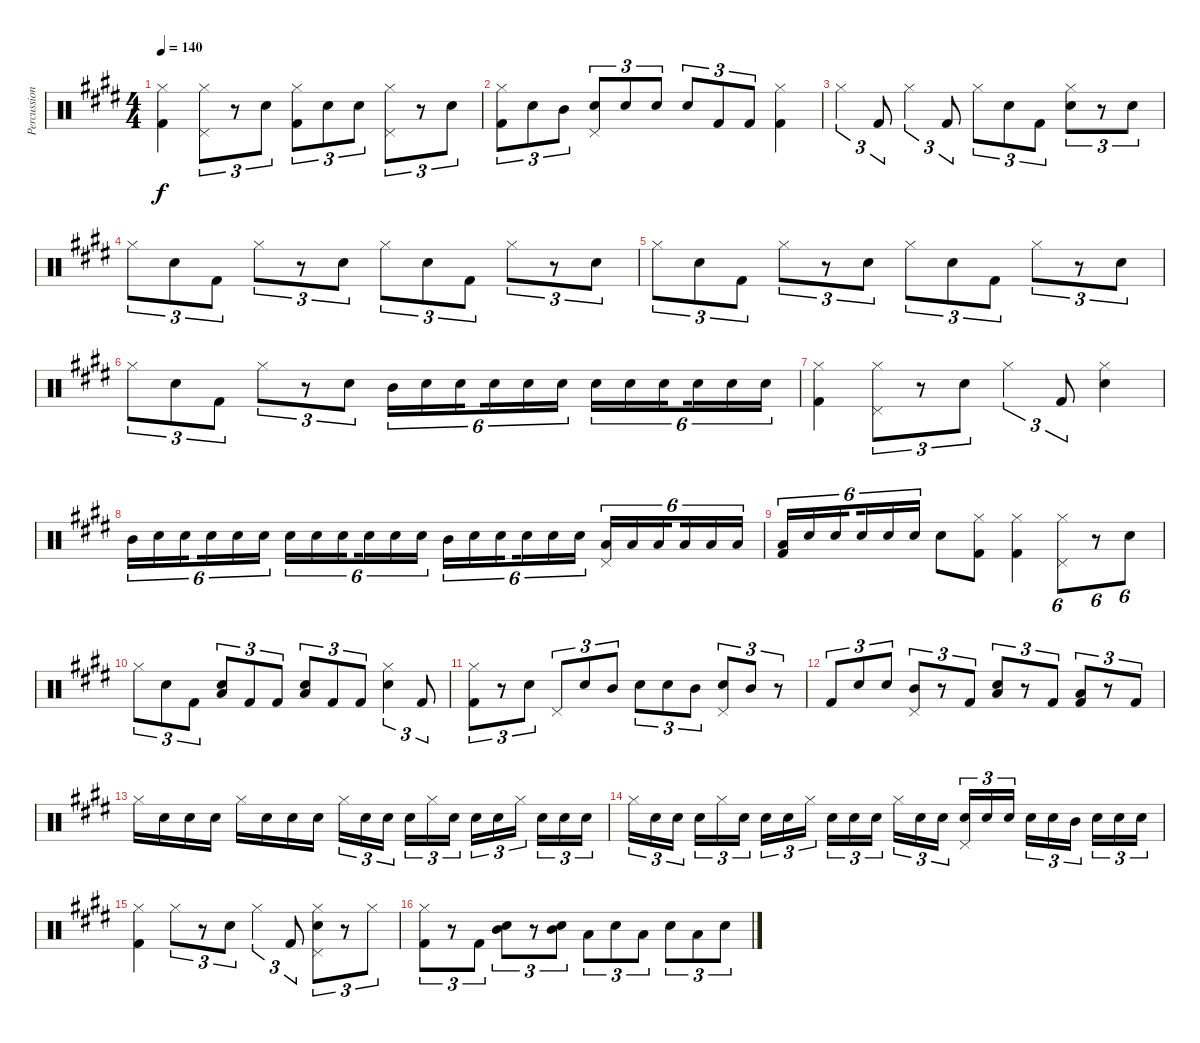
\track ("Percussion" "Percussion") {instrument percussion}
\staff {score}
\articulation defaults
\ts (4 4)
\tempo 140
\clef neutral
\ks e
("Hi-Hat (closed)" "Kick (hit) 2").4{dy f} ("Hi-Hat (closed)" "Pedal Hi-Hat (hit)").8{tu (3 2)} r.8{tu (3 2)} "Snare (hit) 2".8{tu (3 2)} ("Hi-Hat (closed)" "Kick (hit) 2").8{tu (3 2)} "Snare (hit) 2".8{tu (3 2)} "Snare (hit) 2".8{tu (3 2)} ("Hi-Hat (closed)" "Pedal Hi-Hat (hit)").8{tu (3 2)} r.8{tu (3 2)} "Snare (hit) 2".8{tu (3 2)} |
("Hi-Hat (closed)" "Kick (hit) 2").8{tu (3 2)} "Snare (hit) 2".8{tu (3 2)} "Mid Tom (hit)".8{tu (3 2)} ("Snare (hit) 2" "Pedal Hi-Hat (hit)").8{tu (3 2)} "Snare (hit) 2".8{tu (3 2)} "Snare (hit) 2".8{tu (3 2)} "Snare (hit) 2".8{tu (3 2)} "Kick (hit) 2".8{tu (3 2)} "Kick (hit) 2".8{tu (3 2)} ("Hi-Hat (closed)" "Kick (hit) 2").4 |
"Hi-Hat (closed)".4{tu (3 2)} "Kick (hit) 2".8{tu (3 2)} "Hi-Hat (closed)".4{tu (3 2)} "Kick (hit) 2".8{tu (3 2)} "Hi-Hat (closed)".8{tu (3 2)} "Snare (hit) 2".8{tu (3 2)} "Kick (hit) 2".8{tu (3 2)} ("Hi-Hat (closed)" "Snare (hit) 2").8{tu (3 2)} r.8{tu (3 2)} "Snare (hit) 2".8{tu (3 2)} |
"Hi-Hat (closed)".8{tu (3 2)} "Snare (hit) 2".8{tu (3 2)} "Kick (hit) 2".8{tu (3 2)} "Hi-Hat (closed)".8{tu (3 2)} r.8{tu (3 2)} "Snare (hit) 2".8{tu (3 2)} "Hi-Hat (closed)".8{tu (3 2)} "Snare (hit) 2".8{tu (3 2)} "Kick (hit) 2".8{tu (3 2)} "Hi-Hat (closed)".8{tu (3 2)} r.8{tu (3 2)} "Snare (hit) 2".8{tu (3 2)} |
"Hi-Hat (closed)".8{tu (3 2)} "Snare (hit) 2".8{tu (3 2)} "Kick (hit) 2".8{tu (3 2)} "Hi-Hat (closed)".8{tu (3 2)} r.8{tu (3 2)} "Snare (hit) 2".8{tu (3 2)} "Hi-Hat (closed)".8{tu (3 2)} "Snare (hit) 2".8{tu (3 2)} "Kick (hit) 2".8{tu (3 2)} "Hi-Hat (closed)".8{tu (3 2)} r.8{tu (3 2)} "Snare (hit) 2".8{tu (3 2)} |
"Hi-Hat (closed)".8{tu (3 2)} "Snare (hit) 2".8{tu (3 2)} "Kick (hit) 2".8{tu (3 2)} "Hi-Hat (closed)".8{tu (3 2)} r.8{tu (3 2)} "Snare (hit) 2".8{tu (3 2)} "Mid Tom (hit)".16{tu (6 4)} "Snare (hit) 2".16{tu (6 4)} "Snare (hit) 2".16{tu (6 4) beam splitsecondary} "Snare (hit) 2".16{tu (6 4)} "Snare (hit) 2".16{tu (6 4)} "Snare (hit) 2".16{tu (6 4)} "Snare (hit) 2".16{tu (6 4)} "Snare (hit) 2".16{tu (6 4)} "Snare (hit) 2".16{tu (6 4) beam splitsecondary} "Snare (hit) 2".16{tu (6 4)} "Snare (hit) 2".16{tu (6 4)} "Snare (hit) 2".16{tu (6 4)} |
("Hi-Hat (closed)" "Kick (hit) 2").4 ("Hi-Hat (closed)" "Pedal Hi-Hat (hit)").8{tu (3 2)} r.8{tu (3 2)} "Snare (hit) 2".8{tu (3 2)} "Hi-Hat (closed)".4{tu (3 2)} "Kick (hit) 2".8{tu (3 2)} ("Hi-Hat (closed)" "Snare (hit) 2").4 |
"Mid Tom (hit)".16{tu (6 4)} "Snare (hit) 2".16{tu (6 4)} "Snare (hit) 2".16{tu (6 4) beam splitsecondary} "Snare (hit) 2".16{tu (6 4)} "Snare (hit) 2".16{tu (6 4)} "Snare (hit) 2".16{tu (6 4)} "Snare (hit) 2".16{tu (6 4)} "Snare (hit) 2".16{tu (6 4)} "Snare (hit) 2".16{tu (6 4) beam splitsecondary} "Snare (hit) 2".16{tu (6 4)} "Snare (hit) 2".16{tu (6 4)} "Snare (hit) 2".16{tu (6 4)} "Mid Tom (hit)".16{tu (6 4)} "Snare (hit) 2".16{tu (6 4)} "Snare (hit) 2".16{tu (6 4) beam splitsecondary} "Snare (hit) 2".16{tu (6 4)} "Snare (hit) 2".16{tu (6 4)} "Snare (hit) 2".16{tu (6 4)} ("Low Floor Tom (hit)" "Pedal Hi-Hat (hit)").16{tu (6 4)} "Low Floor Tom (hit)".16{tu (6 4)} "Low Floor Tom (hit)".16{tu (6 4) beam splitsecondary} "Low Floor Tom (hit)".16{tu (6 4)} "Low Floor Tom (hit)".16{tu (6 4)} "Low Floor Tom (hit)".16{tu (6 4)} |
("Low Floor Tom (hit)" "Kick (hit) 2").16{tu (6 4)} "Snare (hit) 2".16{tu (6 4)} "Snare (hit) 2".16{tu (6 4) beam splitsecondary} "Snare (hit) 2".16{tu (6 4)} "Snare (hit) 2".16{tu (6 4)} "Snare (hit) 2".16{tu (6 4)} "Snare (hit) 2".8 ("Hi-Hat (closed)" "Kick (hit) 2").8 ("Hi-Hat (closed)" "Kick (hit) 2").4 ("Hi-Hat (closed)" "Pedal Hi-Hat (hit)").8{tu (6 4)} r.8{tu (6 4)} "Snare (hit) 2".8{tu (6 4)} |
"Hi-Hat (closed)".8{tu (3 2)} "Snare (hit) 2".8{tu (3 2)} "Kick (hit) 2".8{tu (3 2)} ("Snare (hit) 2" "Low Floor Tom (hit)").8{tu (3 2)} "Kick (hit) 2".8{tu (3 2)} "Kick (hit) 2".8{tu (3 2)} ("Snare (hit) 2" "Low Floor Tom (hit)").8{tu (3 2)} "Kick (hit) 2".8{tu (3 2)} "Kick (hit) 2".8{tu (3 2)} ("Hi-Hat (closed)" "Snare (hit) 2").4{tu (3 2)} "Kick (hit) 2".8{tu (3 2)} |
("Hi-Hat (closed)" "Kick (hit) 2").8{tu (3 2)} r.8{tu (3 2)} "Snare (hit) 2".8{tu (3 2)} "Pedal Hi-Hat (hit)".8{tu (3 2)} "Snare (hit) 2".8{tu (3 2)} "Mid Tom (hit)".8{tu (3 2)} "Snare (hit) 2".8{tu (3 2)} "Snare (hit) 2".8{tu (3 2)} "Mid Tom (hit)".8{tu (3 2)} ("Snare (hit) 2" "Pedal Hi-Hat (hit)").8{tu (3 2)} "Mid Tom (hit)".8{tu (3 2)} r.8{tu (3 2)} |
"Kick (hit) 2".8{tu (3 2)} "Snare (hit) 2".8{tu (3 2)} "Snare (hit) 2".8{tu (3 2)} ("Mid Tom (hit)" "Pedal Hi-Hat (hit)").8{tu (3 2)} r.8{tu (3 2)} "Kick (hit) 2".8{tu (3 2)} ("Snare (hit) 2" "Low Floor Tom (hit)").8{tu (3 2)} r.8{tu (3 2)} "Kick (hit) 2".8{tu (3 2)} ("Low Floor Tom (hit)" "Kick (hit) 2").8{tu (3 2)} r.8{tu (3 2)} "Kick (hit) 2".8{tu (3 2)} |
"Hi-Hat (closed)".16 "Snare (hit) 2".16 "Snare (hit) 2".16 "Snare (hit) 2".16 "Hi-Hat (closed)".16 "Snare (hit) 2".16 "Snare (hit) 2".16 "Snare (hit) 2".16 "Hi-Hat (closed)".16{tu (3 2)} "Snare (hit) 2".16{tu (3 2)} "Snare (hit) 2".16{tu (3 2) beam splitsecondary} "Snare (hit) 2".16{tu (3 2)} "Hi-Hat (closed)".16{tu (3 2)} "Snare (hit) 2".16{tu (3 2)} "Snare (hit) 2".16{tu (3 2)} "Snare (hit) 2".16{tu (3 2)} "Hi-Hat (closed)".16{tu (3 2) beam splitsecondary} "Snare (hit)".16{tu (3 2)} "Snare (hit) 2".16{tu (3 2)} "Snare (hit) 2".16{tu (3 2)} |
"Hi-Hat (closed)".16{tu (3 2)} "Snare (hit) 2".16{tu (3 2)} "Snare (hit) 2".16{tu (3 2) beam splitsecondary} "Snare (hit) 2".16{tu (3 2)} "Hi-Hat (closed)".16{tu (3 2)} "Snare (hit) 2".16{tu (3 2)} "Snare (hit) 2".16{tu (3 2)} "Snare (hit) 2".16{tu (3 2)} "Hi-Hat (closed)".16{tu (3 2) beam splitsecondary} "Snare (hit) 2".16{tu (3 2)} "Snare (hit) 2".16{tu (3 2)} "Snare (hit) 2".16{tu (3 2)} "Hi-Hat (closed)".16{tu (3 2)} "Snare (hit) 2".16{tu (3 2)} "Snare (hit) 2".16{tu (3 2) beam splitsecondary} ("Snare (hit) 2" "Pedal Hi-Hat (hit)").16{tu (3 2)} "Snare (hit) 2".16{tu (3 2)} "Snare (hit) 2".16{tu (3 2)} "Snare (hit) 2".16{tu (3 2)} "Snare (hit) 2".16{tu (3 2)} "Mid Tom (hit)".16{tu (3 2) beam splitsecondary} "Snare (hit) 2".16{tu (3 2)} "Snare (hit) 2".16{tu (3 2)} "Snare (hit) 2".16{tu (3 2)} |
("Hi-Hat (closed)" "Kick (hit) 2").4 "Hi-Hat (closed)".8{tu (3 2)} r.8{tu (3 2)} "Snare (hit) 2".8{tu (3 2)} "Hi-Hat (closed)".4{tu (3 2)} "Kick (hit) 2".8{tu (3 2)} ("Hi-Hat (closed)" "Snare (hit) 2" "Pedal Hi-Hat (hit)").8{tu (3 2)} r.8{tu (3 2)} "Hi-Hat (closed)".8{tu (3 2)} |
("Hi-Hat (closed)" "Kick (hit) 2").8{tu (3 2)} r.8{tu (3 2)} "Kick (hit) 2".8{tu (3 2)} ("Mid Tom (hit)" "Snare (hit) 2").8{tu (3 2)} r.8{tu (3 2)} ("Mid Tom (hit)" "Snare (hit) 2").8{tu (3 2)} "Low Floor Tom (hit)".8{tu (3 2)} "Snare (hit) 2".8{tu (3 2)} "Low Floor Tom (hit)".8{tu (3 2)} "Snare (hit) 2".8{tu (3 2)} "Low Floor Tom (hit)".8{tu (3 2)} "Snare (hit) 2".8{tu (3 2)}
